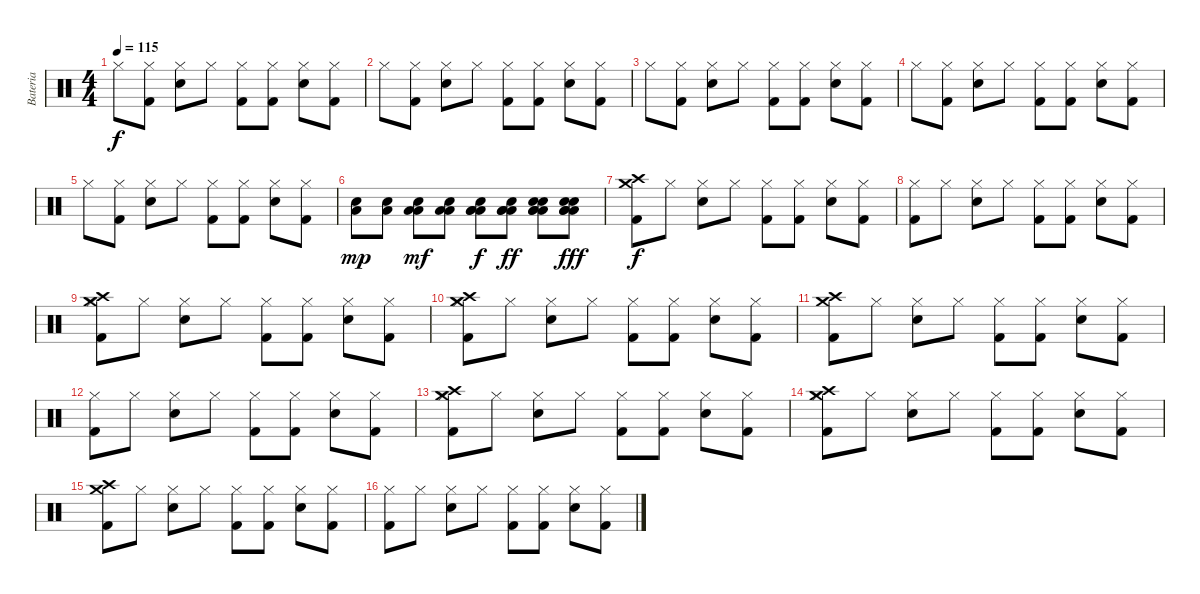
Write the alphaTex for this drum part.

\track ("Bateria" "Bateria") {instrument percussion}
\staff {score}
\articulation defaults
\ts (4 4)
\tempo 115
\clef neutral
\ks c "Hi-Hat (closed)".8{dy f}
("Hi-Hat (closed)" "Kick (hit) 2").8 ("Hi-Hat (closed)" "Snare (hit) 2").8 "Hi-Hat (closed)".8 ("Hi-Hat (closed)" "Kick (hit) 2").8 ("Hi-Hat (closed)" "Kick (hit) 2").8 ("Hi-Hat (closed)" "Snare (hit) 2").8 ("Hi-Hat (closed)" "Kick (hit) 2").8 |
"Hi-Hat (closed)".8 ("Hi-Hat (closed)" "Kick (hit) 2").8 ("Hi-Hat (closed)" "Snare (hit) 2").8 "Hi-Hat (closed)".8 ("Hi-Hat (closed)" "Kick (hit) 2").8 ("Hi-Hat (closed)" "Kick (hit) 2").8 ("Hi-Hat (closed)" "Snare (hit) 2").8 ("Hi-Hat (closed)" "Kick (hit) 2").8 |
"Hi-Hat (closed)".8 ("Hi-Hat (closed)" "Kick (hit) 2").8 ("Hi-Hat (closed)" "Snare (hit) 2").8 "Hi-Hat (closed)".8 ("Hi-Hat (closed)" "Kick (hit) 2").8 ("Hi-Hat (closed)" "Kick (hit) 2").8 ("Hi-Hat (closed)" "Snare (hit) 2").8 ("Hi-Hat (closed)" "Kick (hit) 2").8 |
"Hi-Hat (closed)".8 ("Hi-Hat (closed)" "Kick (hit) 2").8 ("Hi-Hat (closed)" "Snare (hit) 2").8 "Hi-Hat (closed)".8 ("Hi-Hat (closed)" "Kick (hit) 2").8 ("Hi-Hat (closed)" "Kick (hit) 2").8 ("Hi-Hat (closed)" "Snare (hit) 2").8 ("Hi-Hat (closed)" "Kick (hit) 2").8 |
"Hi-Hat (closed)".8 ("Hi-Hat (closed)" "Kick (hit) 2").8 ("Hi-Hat (closed)" "Snare (hit) 2").8 "Hi-Hat (closed)".8 ("Hi-Hat (closed)" "Kick (hit) 2").8 ("Hi-Hat (closed)" "Kick (hit) 2").8 ("Hi-Hat (closed)" "Snare (hit) 2").8 ("Hi-Hat (closed)" "Kick (hit) 2").8 |
("Low Floor Tom (hit)" "Snare (hit) 2").8{dy mp volume 16 balance 8} ("Low Floor Tom (hit)" "Snare (hit) 2").8 ("Low Floor Tom (hit)" "Low Floor Tom (hit)" "Snare (hit) 2").8{dy mf} ("Low Floor Tom (hit)" "Low Floor Tom (hit)" "Snare (hit) 2").8 ("Low Floor Tom (hit)" "Low Floor Tom (hit)" "Low Floor Tom (hit)" "Snare (hit) 2").8{dy f} ("Low Floor Tom (hit)" "Low Floor Tom (hit)" "Low Floor Tom (hit)" "Snare (hit) 2").8{dy ff} ("Low Floor Tom (hit)" "Low Floor Tom (hit)" "Low Floor Tom (hit)" "Snare (hit) 2" "Snare (hit) 2").8 ("Low Floor Tom (hit)" "Low Floor Tom (hit)" "Low Floor Tom (hit)" "Snare (hit) 2" "Snare (hit) 2").8{dy fff} |
("Crash high (hit)" "Crash medium (hit)" "Kick (hit) 2").8{dy f} "Hi-Hat (closed)".8 ("Hi-Hat (closed)" "Snare (hit) 2").8 "Hi-Hat (closed)".8 ("Hi-Hat (closed)" "Kick (hit) 2").8 ("Hi-Hat (closed)" "Kick (hit) 2").8 ("Hi-Hat (closed)" "Snare (hit) 2").8 ("Hi-Hat (closed)" "Kick (hit) 2").8 |
("Hi-Hat (closed)" "Kick (hit) 2").8 "Hi-Hat (closed)".8 ("Hi-Hat (closed)" "Snare (hit) 2").8 "Hi-Hat (closed)".8 ("Hi-Hat (closed)" "Kick (hit) 2").8 ("Hi-Hat (closed)" "Kick (hit) 2").8 ("Hi-Hat (closed)" "Snare (hit) 2").8 ("Hi-Hat (closed)" "Kick (hit) 2").8 |
("Crash high (hit)" "Crash medium (hit)" "Hi-Hat (closed)" "Kick (hit) 2").8 "Hi-Hat (closed)".8 ("Hi-Hat (closed)" "Snare (hit) 2").8 "Hi-Hat (closed)".8 ("Hi-Hat (closed)" "Kick (hit) 2").8 ("Hi-Hat (closed)" "Kick (hit) 2").8 ("Hi-Hat (closed)" "Snare (hit) 2").8 ("Hi-Hat (closed)" "Kick (hit) 2").8 |
("Crash high (hit)" "Crash medium (hit)" "Hi-Hat (closed)" "Kick (hit) 2").8 "Hi-Hat (closed)".8 ("Hi-Hat (closed)" "Snare (hit) 2").8 "Hi-Hat (closed)".8 ("Hi-Hat (closed)" "Kick (hit) 2").8 ("Hi-Hat (closed)" "Kick (hit) 2").8 ("Hi-Hat (closed)" "Snare (hit) 2").8 ("Hi-Hat (closed)" "Kick (hit) 2").8 |
("Crash high (hit)" "Crash medium (hit)" "Kick (hit) 2").8 "Hi-Hat (closed)".8 ("Hi-Hat (closed)" "Snare (hit) 2").8 "Hi-Hat (closed)".8 ("Hi-Hat (closed)" "Kick (hit) 2").8 ("Hi-Hat (closed)" "Kick (hit) 2").8 ("Hi-Hat (closed)" "Snare (hit) 2").8 ("Hi-Hat (closed)" "Kick (hit) 2").8 |
("Hi-Hat (closed)" "Kick (hit) 2").8 "Hi-Hat (closed)".8 ("Hi-Hat (closed)" "Snare (hit) 2").8 "Hi-Hat (closed)".8 ("Hi-Hat (closed)" "Kick (hit) 2").8 ("Hi-Hat (closed)" "Kick (hit) 2").8 ("Hi-Hat (closed)" "Snare (hit) 2").8 ("Hi-Hat (closed)" "Kick (hit) 2").8 |
("Crash high (hit)" "Crash medium (hit)" "Hi-Hat (closed)" "Kick (hit) 2").8 "Hi-Hat (closed)".8 ("Hi-Hat (closed)" "Snare (hit) 2").8 "Hi-Hat (closed)".8 ("Hi-Hat (closed)" "Kick (hit) 2").8 ("Hi-Hat (closed)" "Kick (hit) 2").8 ("Hi-Hat (closed)" "Snare (hit) 2").8 ("Hi-Hat (closed)" "Kick (hit) 2").8 |
("Crash high (hit)" "Crash medium (hit)" "Hi-Hat (closed)" "Kick (hit) 2").8 "Hi-Hat (closed)".8 ("Hi-Hat (closed)" "Snare (hit) 2").8 "Hi-Hat (closed)".8 ("Hi-Hat (closed)" "Kick (hit) 2").8 ("Hi-Hat (closed)" "Kick (hit) 2").8 ("Hi-Hat (closed)" "Snare (hit) 2").8 ("Hi-Hat (closed)" "Kick (hit) 2").8 |
("Crash high (hit)" "Crash medium (hit)" "Kick (hit) 2").8 "Hi-Hat (closed)".8 ("Hi-Hat (closed)" "Snare (hit) 2").8 "Hi-Hat (closed)".8 ("Hi-Hat (closed)" "Kick (hit) 2").8 ("Hi-Hat (closed)" "Kick (hit) 2").8 ("Hi-Hat (closed)" "Snare (hit) 2").8 ("Hi-Hat (closed)" "Kick (hit) 2").8 |
("Hi-Hat (closed)" "Kick (hit) 2").8 "Hi-Hat (closed)".8 ("Hi-Hat (closed)" "Snare (hit) 2").8 "Hi-Hat (closed)".8 ("Hi-Hat (closed)" "Kick (hit) 2").8 ("Hi-Hat (closed)" "Kick (hit) 2").8 ("Hi-Hat (closed)" "Snare (hit) 2").8 ("Hi-Hat (closed)" "Kick (hit) 2").8
